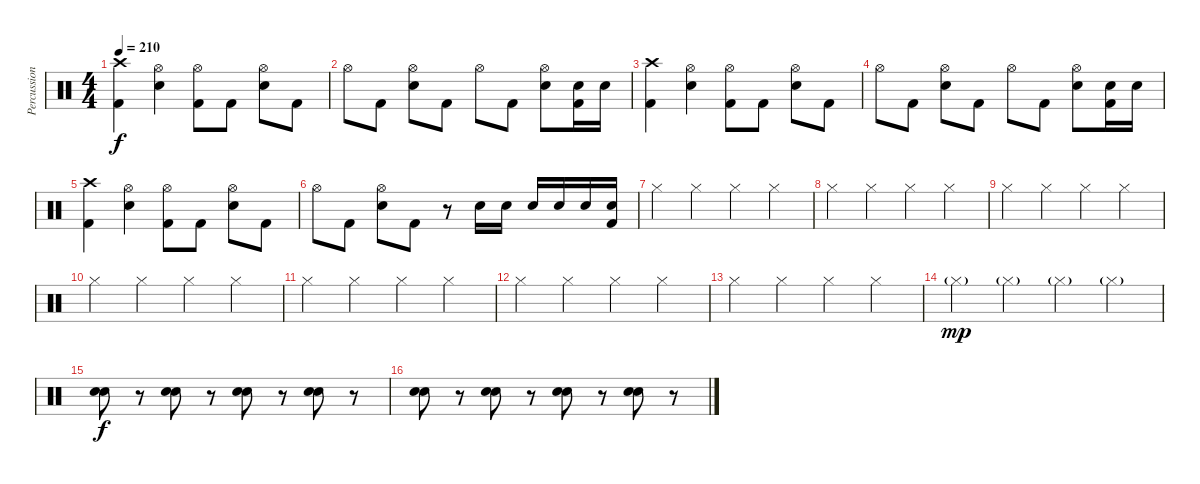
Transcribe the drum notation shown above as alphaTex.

\track ("Percussions" "Percussion") {instrument percussion}
\staff {score}
\articulation defaults
\ts (4 4)
\tempo 210
\clef neutral
\ks c
("Kick (hit) 2" "Crash high (hit)").4{dy f} ("Snare (hit) 2" "Hi-Hat (open)").4 ("Kick (hit) 2" "Hi-Hat (open)").8 "Kick (hit) 2".8 ("Snare (hit) 2" "Hi-Hat (open)").8 "Kick (hit) 2".8 |
"Hi-Hat (open)".8 "Kick (hit) 2".8 ("Snare (hit) 2" "Hi-Hat (open)").8 "Kick (hit) 2".8 "Hi-Hat (open)".8 "Kick (hit) 2".8 ("Snare (hit) 2" "Hi-Hat (open)").8 ("Kick (hit) 2" "Snare (hit) 2").16 "Snare (hit) 2".16 |
("Kick (hit) 2" "Crash high (hit)").4 ("Snare (hit) 2" "Hi-Hat (open)").4 ("Kick (hit) 2" "Hi-Hat (open)").8 "Kick (hit) 2".8 ("Snare (hit) 2" "Hi-Hat (open)").8 "Kick (hit) 2".8 |
"Hi-Hat (open)".8 "Kick (hit) 2".8 ("Snare (hit) 2" "Hi-Hat (open)").8 "Kick (hit) 2".8 "Hi-Hat (open)".8 "Kick (hit) 2".8 ("Snare (hit) 2" "Hi-Hat (open)").8 ("Kick (hit) 2" "Snare (hit) 2").16 "Snare (hit) 2".16 |
("Kick (hit) 2" "Crash high (hit)").4 ("Snare (hit) 2" "Hi-Hat (open)").4 ("Kick (hit) 2" "Hi-Hat (open)").8 "Kick (hit) 2".8 ("Snare (hit) 2" "Hi-Hat (open)").8 "Kick (hit) 2".8 |
"Hi-Hat (open)".8 "Kick (hit) 2".8 ("Snare (hit) 2" "Hi-Hat (open)").8 "Kick (hit) 2".8 r.8 "Snare (hit) 2".16 "Snare (hit) 2".16 "Snare (hit) 2".16 "Snare (hit) 2".16 "Snare (hit) 2".16 ("Kick (hit) 2" "Snare (hit) 2").16 |
"Hi-Hat (closed)".4 "Hi-Hat (closed)".4 "Hi-Hat (closed)".4 "Hi-Hat (closed)".4 |
"Hi-Hat (closed)".4 "Hi-Hat (closed)".4 "Hi-Hat (closed)".4 "Hi-Hat (closed)".4 |
"Hi-Hat (closed)".4 "Hi-Hat (closed)".4 "Hi-Hat (closed)".4 "Hi-Hat (closed)".4 |
"Hi-Hat (closed)".4 "Hi-Hat (closed)".4 "Hi-Hat (closed)".4 "Hi-Hat (closed)".4 |
"Hi-Hat (closed)".4 "Hi-Hat (closed)".4 "Hi-Hat (closed)".4 "Hi-Hat (closed)".4 |
"Hi-Hat (closed)".4 "Hi-Hat (closed)".4 "Hi-Hat (closed)".4 "Hi-Hat (closed)".4 |
"Hi-Hat (closed)".4 "Hi-Hat (closed)".4 "Hi-Hat (closed)".4 "Hi-Hat (closed)".4 |
"Hi-Hat (closed)"{g}.4{dy mp} "Hi-Hat (closed)"{g}.4 "Hi-Hat (closed)"{g}.4 "Hi-Hat (closed)"{g}.4 |
("Snare (hit) 2" "Snare (hit) 2").8{dy f} r.8 ("Snare (hit) 2" "Snare (hit) 2").8 r.8 ("Snare (hit) 2" "Snare (hit) 2").8 r.8 ("Snare (hit) 2" "Snare (hit) 2").8 r.8 |
("Snare (hit) 2" "Snare (hit) 2").8 r.8 ("Snare (hit) 2" "Snare (hit) 2").8 r.8 ("Snare (hit) 2" "Snare (hit) 2").8 r.8 ("Snare (hit) 2" "Snare (hit) 2").8 r.8
